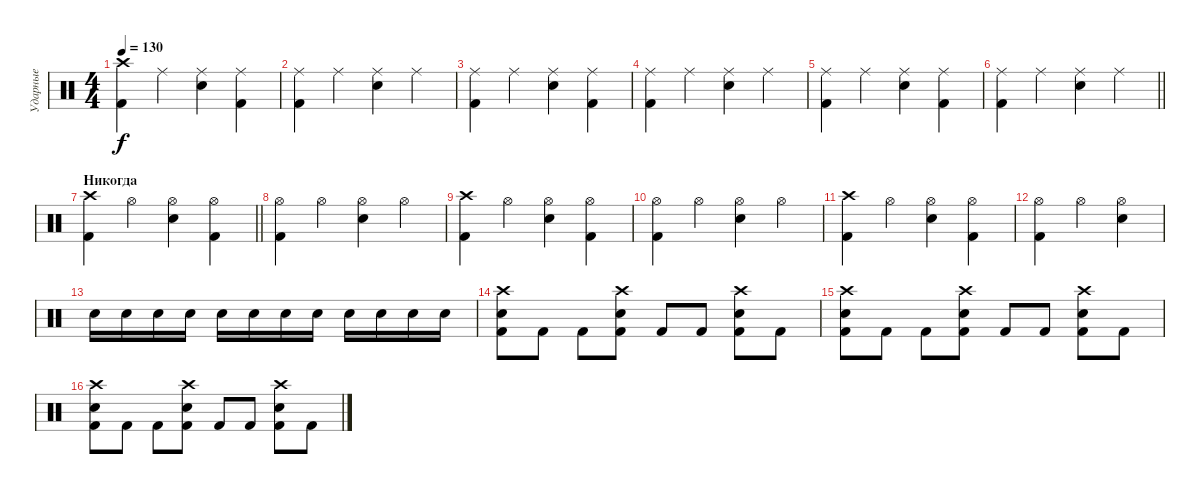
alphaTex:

\track ("Ударные" "Ударные") {instrument percussion}
\staff {score}
\articulation defaults
\ts (4 4)
\tempo 130
\clef neutral
\ks c
("Crash high (hit)" "Kick (hit) 2").4{dy f} "Ride (middle)".4 ("Ride (middle)" "Snare (hit) 2").4 ("Ride (middle)" "Kick (hit) 2").4 |
("Ride (middle)" "Kick (hit) 2").4 "Ride (middle)".4 ("Ride (middle)" "Snare (hit) 2").4 "Ride (middle)".4 |
("Ride (middle)" "Kick (hit) 2").4 "Ride (middle)".4 ("Ride (middle)" "Snare (hit) 2").4 ("Ride (middle)" "Kick (hit) 2").4 |
("Ride (middle)" "Kick (hit) 2").4 "Ride (middle)".4 ("Ride (middle)" "Snare (hit) 2").4 "Ride (middle)".4 |
("Ride (middle)" "Kick (hit) 2").4 "Ride (middle)".4 ("Ride (middle)" "Snare (hit) 2").4 ("Ride (middle)" "Kick (hit) 2").4 |
\barLineRight lightlight
("Ride (middle)" "Kick (hit) 2").4 "Ride (middle)".4 ("Ride (middle)" "Snare (hit) 2").4 "Ride (middle)".4 |
\section ("" "Никогда")
\barLineRight lightlight
("Crash high (hit)" "Kick (hit) 2").4 "Hi-Hat (open)".4 ("Hi-Hat (open)" "Snare (hit) 2").4 ("Hi-Hat (open)" "Kick (hit) 2").4 |
("Hi-Hat (open)" "Kick (hit) 2").4 "Hi-Hat (open)".4 ("Hi-Hat (open)" "Snare (hit) 2").4 "Hi-Hat (open)".4 |
("Crash high (hit)" "Kick (hit) 2").4 "Hi-Hat (open)".4 ("Hi-Hat (open)" "Snare (hit) 2").4 ("Hi-Hat (open)" "Kick (hit) 2").4 |
("Hi-Hat (open)" "Kick (hit) 2").4 "Hi-Hat (open)".4 ("Hi-Hat (open)" "Snare (hit) 2").4 "Hi-Hat (open)".4 |
("Crash high (hit)" "Kick (hit) 2").4 "Hi-Hat (open)".4 ("Hi-Hat (open)" "Snare (hit) 2").4 ("Hi-Hat (open)" "Kick (hit) 2").4 |
("Hi-Hat (open)" "Kick (hit) 2").4 "Hi-Hat (open)".4 ("Hi-Hat (open)" "Snare (hit) 2").4 |
"Snare (hit) 2".16 "Snare (hit) 2".16 "Snare (hit) 2".16 "Snare (hit) 2".16 "Snare (hit) 2".16 "Snare (hit) 2".16 "Snare (hit) 2".16 "Snare (hit) 2".16 "Snare (hit) 2".16 "Snare (hit) 2".16 "Snare (hit) 2".16 "Snare (hit) 2".16 |
("Crash high (hit)" "Snare (hit) 2" "Kick (hit) 2").8 "Kick (hit) 2".8 "Kick (hit) 2".8 ("Crash high (hit)" "Snare (hit) 2" "Kick (hit) 2").8 "Kick (hit) 2".8 "Kick (hit) 2".8 ("Crash high (hit)" "Snare (hit) 2" "Kick (hit) 2").8 "Kick (hit) 2".8 |
("Crash high (hit)" "Snare (hit) 2" "Kick (hit) 2").8 "Kick (hit) 2".8 "Kick (hit) 2".8 ("Crash high (hit)" "Snare (hit) 2" "Kick (hit) 2").8 "Kick (hit) 2".8 "Kick (hit) 2".8 ("Crash high (hit)" "Snare (hit) 2" "Kick (hit) 2").8 "Kick (hit) 2".8 |
("Crash high (hit)" "Snare (hit) 2" "Kick (hit) 2").8 "Kick (hit) 2".8 "Kick (hit) 2".8 ("Crash high (hit)" "Snare (hit) 2" "Kick (hit) 2").8 "Kick (hit) 2".8 "Kick (hit) 2".8 ("Crash high (hit)" "Snare (hit) 2" "Kick (hit) 2").8 "Kick (hit) 2".8
